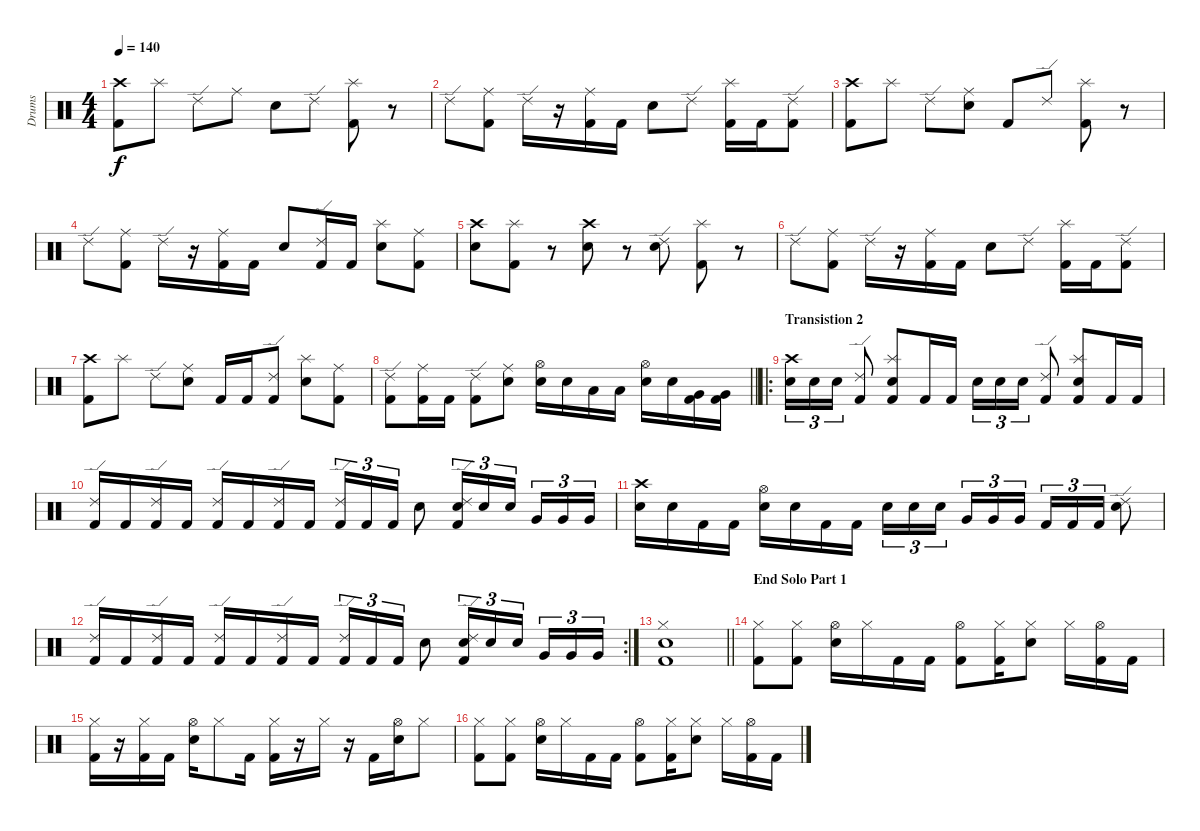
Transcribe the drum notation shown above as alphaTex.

\track ("Drums" "Drums") {instrument percussion}
\staff {score}
\articulation defaults
\ts (4 4)
\tempo 140
\clef neutral
\ks c
("Crash high (hit)" "Kick (hit) 2").8{dy f} "Splash (hit)".8 "Ride (edge) 2".8 "Ride (middle)".8 "Snare (hit) 2".8 "Ride (edge) 2".8 ("Splash (hit)" "Kick (hit) 2").8 r.8 |
"Ride (edge) 2".8 ("Ride (middle)" "Kick (hit) 2").8 "Ride (edge) 2".16 r.16 ("Ride (middle)" "Kick (hit) 2").16 "Kick (hit) 2".16 "Snare (hit) 2".8 "Ride (edge) 2".8 ("Splash (hit)" "Kick (hit) 2").16 "Kick (hit) 2".16 ("Ride (edge) 2" "Kick (hit) 2").8 |
("Crash high (hit)" "Kick (hit) 2").8 "Splash (hit)".8 "Ride (edge) 2".8 ("Ride (middle)" "Snare (hit) 2").8 "Kick (hit) 2".8 "Ride (edge) 2".8 ("Splash (hit)" "Kick (hit) 2").8 r.8 |
"Ride (edge) 2".8 ("Ride (middle)" "Kick (hit) 2").8 "Ride (edge) 2".16 r.16 ("Ride (middle)" "Kick (hit) 2").16 "Kick (hit) 2".16 "Snare (hit) 2".8 ("Ride (edge) 2" "Kick (hit) 2").16 "Kick (hit) 2".16 ("Splash (hit)" "Snare (hit) 2").8 ("Ride (middle)" "Kick (hit) 2").8 |
("Crash high (hit)" "Snare (hit) 2").8 ("Splash (hit)" "Kick (hit) 2").8 r.8 ("Crash high (hit)" "Snare (hit) 2").8 r.8 ("Ride (edge) 2" "Snare (hit) 2").8 ("Splash (hit)" "Kick (hit) 2").8 r.8 |
"Ride (edge) 2".8 ("Ride (middle)" "Kick (hit) 2").8 "Ride (edge) 2".16 r.16 ("Ride (middle)" "Kick (hit) 2").16 "Kick (hit) 2".16 "Snare (hit) 2".8 "Ride (edge) 2".8 ("Splash (hit)" "Kick (hit) 2").16 "Kick (hit) 2".16 ("Ride (edge) 2" "Kick (hit) 2").8 |
("Crash high (hit)" "Kick (hit) 2").8 "Splash (hit)".8 "Ride (edge) 2".8 ("Ride (middle)" "Snare (hit) 2").8 "Kick (hit) 2".16 "Kick (hit) 2".16 ("Ride (edge) 2" "Kick (hit) 2").8 ("Splash (hit)" "Snare (hit) 2").8 ("Ride (middle)" "Kick (hit) 2").8 |
\barLineRight lightlight
("Ride (edge) 2" "Kick (hit) 2").8 ("Ride (middle)" "Kick (hit) 2").16 "Kick (hit) 2".16 ("Ride (edge) 2" "Kick (hit) 2").8 ("Ride (middle)" "Snare (hit) 2").8 ("Hi-Hat (open)" "Snare (hit) 2").16 "Snare (hit) 2".16 "Low Tom (hit)".16 "Low Tom (hit)".16 ("Hi-Hat (open)" "Snare (hit) 2").16 "Snare (hit) 2".16 ("Very Low Tom (hit)" "Kick (hit) 2").16 ("Very Low Tom (hit)" "Kick (hit) 2").16 |
\ro
\section ("" "Transistion 2")
("Crash high (hit)" "Snare (hit) 2").16{tu (3 2)} "Snare (hit) 2".16{tu (3 2)} "Snare (hit) 2".16{tu (3 2)} ("Ride (edge) 2" "Kick (hit) 2").8 ("Splash (hit)" "Snare (hit) 2" "Kick (hit) 2").8 "Kick (hit) 2".16 "Kick (hit) 2".16 "Snare (hit) 2".16{tu (3 2)} "Snare (hit) 2".16{tu (3 2)} "Snare (hit) 2".16{tu (3 2)} ("Ride (edge) 2" "Kick (hit) 2").8 ("Splash (hit)" "Snare (hit) 2" "Kick (hit) 2").8 "Kick (hit) 2".16 "Kick (hit) 2".16 |
("Ride (edge) 2" "Kick (hit) 2").16 "Kick (hit) 2".16 ("Ride (edge) 2" "Kick (hit) 2").16 "Kick (hit) 2".16 ("Ride (edge) 2" "Kick (hit) 2").16 "Kick (hit) 2".16 ("Ride (edge) 2" "Kick (hit) 2").16 "Kick (hit) 2".16 ("Ride (edge) 2" "Kick (hit) 2").16{tu (3 2)} "Kick (hit) 2".16{tu (3 2)} "Kick (hit) 2".16{tu (3 2)} "Snare (hit) 2".8 ("Ride (edge) 2" "Snare (hit) 2" "Kick (hit) 2").16{tu (3 2)} "Snare (hit) 2".16{tu (3 2)} "Snare (hit) 2".16{tu (3 2) beam splitsecondary} "Very Low Tom (hit)".16{tu (3 2)} "Very Low Tom (hit)".16{tu (3 2)} "Very Low Tom (hit)".16{tu (3 2)} |
("Crash high (hit)" "Snare (hit) 2").16 "Snare (hit) 2".16 "Kick (hit) 2".16 "Kick (hit) 2".16 ("Hi-Hat (open)" "Snare (hit) 2").16 "Snare (hit) 2".16 "Kick (hit) 2".16 "Kick (hit) 2".16 "Snare (hit) 2".16{tu (3 2)} "Snare (hit) 2".16{tu (3 2)} "Snare (hit) 2".16{tu (3 2) beam splitsecondary} "Very Low Tom (hit)".16{tu (3 2)} "Very Low Tom (hit)".16{tu (3 2)} "Very Low Tom (hit)".16{tu (3 2)} "Kick (hit) 2".16{tu (3 2)} "Kick (hit) 2".16{tu (3 2)} "Kick (hit) 2".16{tu (3 2)} ("Ride (edge) 2" "Snare (hit) 2").8 |
\rc 2
("Ride (edge) 2" "Kick (hit) 2").16 "Kick (hit) 2".16 ("Ride (edge) 2" "Kick (hit) 2").16 "Kick (hit) 2".16 ("Ride (edge) 2" "Kick (hit) 2").16 "Kick (hit) 2".16 ("Ride (edge) 2" "Kick (hit) 2").16 "Kick (hit) 2".16 ("Ride (edge) 2" "Kick (hit) 2").16{tu (3 2)} "Kick (hit) 2".16{tu (3 2)} "Kick (hit) 2".16{tu (3 2)} "Snare (hit) 2".8 ("Ride (edge) 2" "Snare (hit) 2" "Kick (hit) 2").16{tu (3 2)} "Snare (hit) 2".16{tu (3 2)} "Snare (hit) 2".16{tu (3 2) beam splitsecondary} "Very Low Tom (hit)".16{tu (3 2)} "Very Low Tom (hit)".16{tu (3 2)} "Very Low Tom (hit)".16{tu (3 2)} |
\barLineRight lightlight
("Hi-Hat (closed)" "Snare (hit) 2" "Kick (hit) 2").1 |
\section ("" "End Solo Part 1")
("Hi-Hat (closed)" "Kick (hit) 2").8 ("Hi-Hat (closed)" "Kick (hit) 2").8 ("Hi-Hat (open)" "Electric Snare (hit)").16 "Hi-Hat (closed)".16 "Kick (hit) 2".16 "Kick (hit) 2".16 ("Hi-Hat (open)" "Kick (hit) 2").8 ("Hi-Hat (closed)" "Kick (hit) 2").16 ("Hi-Hat (closed)" "Electric Snare (hit)").8 "Hi-Hat (closed)".16 ("Hi-Hat (open)" "Kick (hit) 2").16 "Kick (hit) 2".16 |
("Hi-Hat (closed)" "Kick (hit) 2").16 r.16 ("Hi-Hat (closed)" "Kick (hit) 2").16 "Kick (hit) 2".16 ("Hi-Hat (open)" "Electric Snare (hit)").16 "Hi-Hat (closed)".8 "Kick (hit) 2".16 ("Hi-Hat (closed)" "Kick (hit) 2").16 r.16 "Hi-Hat (closed)".16 r.16 "Kick (hit) 2".16 ("Hi-Hat (open)" "Electric Snare (hit)").16 "Hi-Hat (closed)".8 |
("Hi-Hat (closed)" "Kick (hit) 2").8 ("Hi-Hat (closed)" "Kick (hit) 2").8 ("Hi-Hat (open)" "Electric Snare (hit)").16 "Hi-Hat (closed)".16 "Kick (hit) 2".16 "Kick (hit) 2".16 ("Hi-Hat (open)" "Kick (hit) 2").8 ("Hi-Hat (closed)" "Kick (hit) 2").16 ("Hi-Hat (closed)" "Electric Snare (hit)").8 "Hi-Hat (closed)".16 ("Hi-Hat (open)" "Kick (hit) 2").16 "Kick (hit) 2".16
